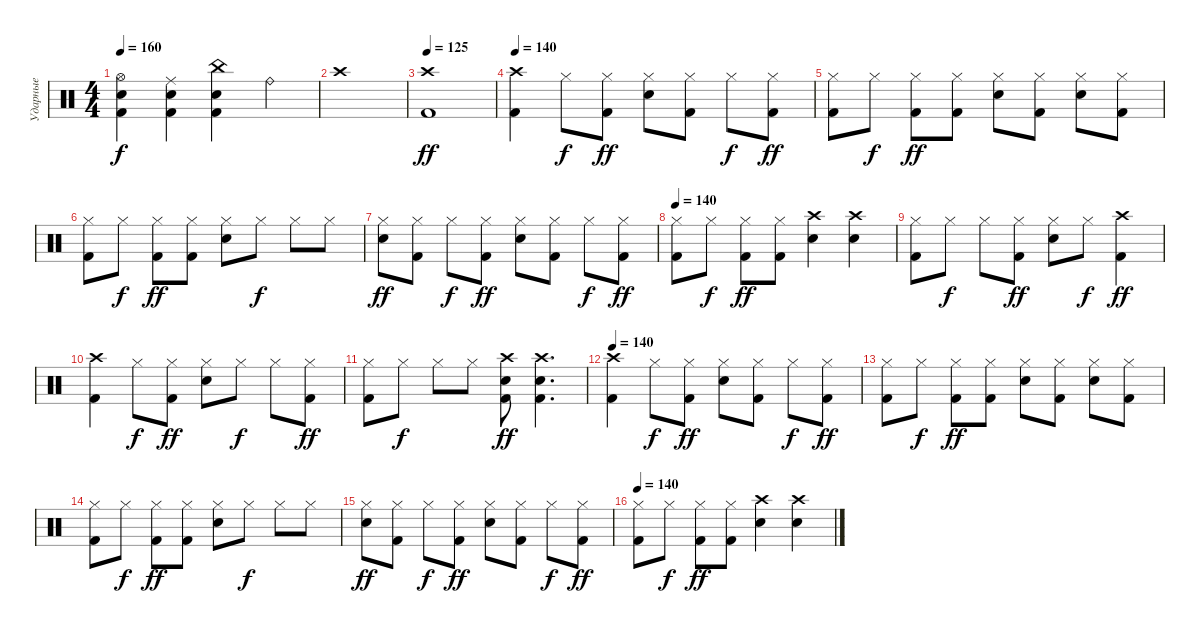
\track ("Ударные" "Ударные") {instrument percussion}
\staff {score}
\articulation defaults
\ts (4 4)
\tempo 160
\clef neutral
\ks c
("Kick (hit) 2" "Snare (hit) 2" "Hi-Hat (open)").4{dy f} ("Kick (hit) 2" "Snare (hit) 2" "Ride (middle)").4 ("Kick (hit) 2" "Snare (hit) 2" "China (hit)").4 "Ride (bell)".4 |
"Crash high (hit)".1 |
\tempo 125
("Crash high (hit)" "Kick (hit) 2").1{dy ff} |
\tempo 140
("Crash high (hit)" "Kick (hit) 2").4 "Hi-Hat (closed)".8{dy f} ("Hi-Hat (closed)" "Kick (hit) 2").8{dy ff} ("Hi-Hat (closed)" "Snare (hit) 2").8 ("Hi-Hat (closed)" "Kick (hit) 2").8 "Hi-Hat (closed)".8{dy f} ("Hi-Hat (closed)" "Kick (hit) 2").8{dy ff} |
("Hi-Hat (closed)" "Kick (hit) 2").8 "Hi-Hat (closed)".8{dy f} ("Hi-Hat (closed)" "Kick (hit) 2").8{dy ff} ("Hi-Hat (closed)" "Kick (hit) 2").8 ("Hi-Hat (closed)" "Snare (hit) 2").8 ("Hi-Hat (closed)" "Kick (hit) 2").8 ("Hi-Hat (closed)" "Snare (hit) 2").8 ("Hi-Hat (closed)" "Kick (hit) 2").8 |
("Hi-Hat (closed)" "Kick (hit) 2").8 "Hi-Hat (closed)".8{dy f} ("Hi-Hat (closed)" "Kick (hit) 2").8{dy ff} ("Hi-Hat (closed)" "Kick (hit) 2").8 ("Hi-Hat (closed)" "Snare (hit) 2").8 "Hi-Hat (closed)".8{dy f} "Hi-Hat (closed)".8 "Hi-Hat (closed)".8 |
("Hi-Hat (closed)" "Snare (hit) 2").8{dy ff} ("Hi-Hat (closed)" "Kick (hit) 2").8 "Hi-Hat (closed)".8{dy f} ("Hi-Hat (closed)" "Kick (hit) 2").8{dy ff} ("Hi-Hat (closed)" "Snare (hit) 2").8 ("Hi-Hat (closed)" "Kick (hit) 2").8 "Hi-Hat (closed)".8{dy f} ("Hi-Hat (closed)" "Kick (hit) 2").8{dy ff} |
\tempo 140
("Hi-Hat (closed)" "Kick (hit) 2").8 "Hi-Hat (closed)".8{dy f} ("Hi-Hat (closed)" "Kick (hit) 2").8{dy ff} ("Hi-Hat (closed)" "Kick (hit) 2").8 ("Crash high (hit)" "Snare (hit) 2").4 ("Crash high (hit)" "Snare (hit) 2").4 |
("Hi-Hat (closed)" "Kick (hit) 2").8 "Hi-Hat (closed)".8{dy f} "Hi-Hat (closed)".8 ("Hi-Hat (closed)" "Kick (hit) 2").8{dy ff} ("Hi-Hat (closed)" "Snare (hit) 2").8 "Hi-Hat (closed)".8{dy f} ("Crash high (hit)" "Kick (hit) 2").4{dy ff} |
("Crash high (hit)" "Kick (hit) 2").4 "Hi-Hat (closed)".8{dy f} ("Hi-Hat (closed)" "Kick (hit) 2").8{dy ff} ("Hi-Hat (closed)" "Snare (hit) 2").8 "Hi-Hat (closed)".8{dy f} "Hi-Hat (closed)".8 ("Hi-Hat (closed)" "Kick (hit) 2").8{dy ff} |
("Hi-Hat (closed)" "Kick (hit) 2").8 "Hi-Hat (closed)".8{dy f} "Hi-Hat (closed)".8 "Hi-Hat (closed)".8 ("Crash high (hit)" "Snare (hit) 2" "Kick (hit) 2").8{dy ff} ("Crash high (hit)" "Snare (hit) 2" "Kick (hit) 2").4{d} |
\tempo 140
("Crash high (hit)" "Kick (hit) 2").4 "Hi-Hat (closed)".8{dy f} ("Hi-Hat (closed)" "Kick (hit) 2").8{dy ff} ("Hi-Hat (closed)" "Snare (hit) 2").8 ("Hi-Hat (closed)" "Kick (hit) 2").8 "Hi-Hat (closed)".8{dy f} ("Hi-Hat (closed)" "Kick (hit) 2").8{dy ff} |
("Hi-Hat (closed)" "Kick (hit) 2").8 "Hi-Hat (closed)".8{dy f} ("Hi-Hat (closed)" "Kick (hit) 2").8{dy ff} ("Hi-Hat (closed)" "Kick (hit) 2").8 ("Hi-Hat (closed)" "Snare (hit) 2").8 ("Hi-Hat (closed)" "Kick (hit) 2").8 ("Hi-Hat (closed)" "Snare (hit) 2").8 ("Hi-Hat (closed)" "Kick (hit) 2").8 |
("Hi-Hat (closed)" "Kick (hit) 2").8 "Hi-Hat (closed)".8{dy f} ("Hi-Hat (closed)" "Kick (hit) 2").8{dy ff} ("Hi-Hat (closed)" "Kick (hit) 2").8 ("Hi-Hat (closed)" "Snare (hit) 2").8 "Hi-Hat (closed)".8{dy f} "Hi-Hat (closed)".8 "Hi-Hat (closed)".8 |
("Hi-Hat (closed)" "Snare (hit) 2").8{dy ff} ("Hi-Hat (closed)" "Kick (hit) 2").8 "Hi-Hat (closed)".8{dy f} ("Hi-Hat (closed)" "Kick (hit) 2").8{dy ff} ("Hi-Hat (closed)" "Snare (hit) 2").8 ("Hi-Hat (closed)" "Kick (hit) 2").8 "Hi-Hat (closed)".8{dy f} ("Hi-Hat (closed)" "Kick (hit) 2").8{dy ff} |
\tempo 140
("Hi-Hat (closed)" "Kick (hit) 2").8 "Hi-Hat (closed)".8{dy f} ("Hi-Hat (closed)" "Kick (hit) 2").8{dy ff} ("Hi-Hat (closed)" "Kick (hit) 2").8 ("Crash high (hit)" "Snare (hit) 2").4 ("Crash high (hit)" "Snare (hit) 2").4
